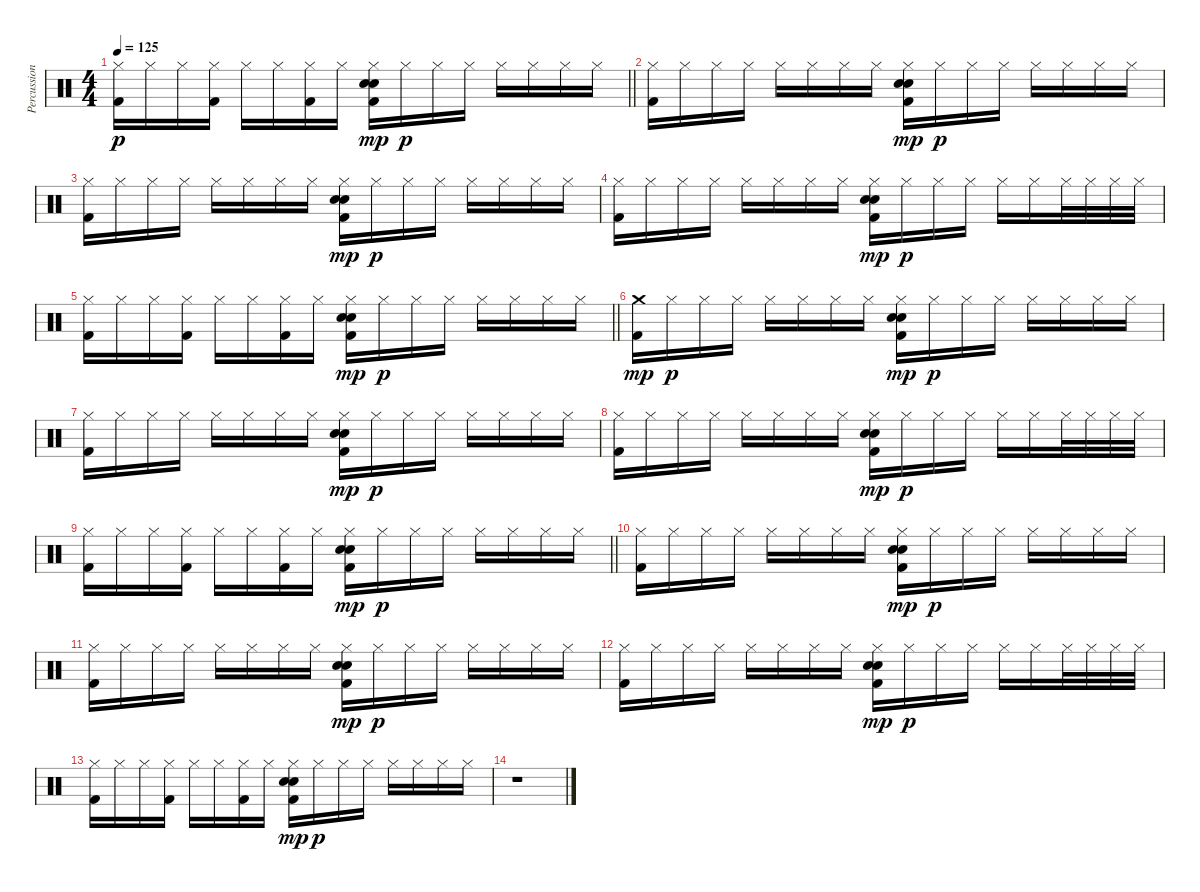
\track ("Percussion" "Percussion") {instrument percussion}
\staff {score}
\articulation defaults
\ts (4 4)
\tempo 125
\clef neutral
\barLineRight lightlight
\ks c
("Hi-Hat (closed)" "Kick (hit) 2").16{dy p} "Hi-Hat (closed)".16 "Hi-Hat (closed)".16 ("Hi-Hat (closed)" "Kick (hit) 2").16 "Hi-Hat (closed)".16 "Hi-Hat (closed)".16 ("Hi-Hat (closed)" "Kick (hit) 2").16 "Hi-Hat (closed)".16 ("Hi-Hat (closed)" "Hand Clap (hit)" "Electric Snare (hit)" "Kick (hit) 2").16{dy mp} "Hi-Hat (closed)".16{dy p} "Hi-Hat (closed)".16 "Hi-Hat (closed)".16 "Hi-Hat (closed)".16 "Hi-Hat (closed)".16 "Hi-Hat (closed)".16 "Hi-Hat (closed)".16 |
("Hi-Hat (closed)" "Kick (hit) 2").16 "Hi-Hat (closed)".16 "Hi-Hat (closed)".16 "Hi-Hat (closed)".16 "Hi-Hat (closed)".16 "Hi-Hat (closed)".16 "Hi-Hat (closed)".16 "Hi-Hat (closed)".16 ("Hi-Hat (closed)" "Hand Clap (hit)" "Electric Snare (hit)" "Kick (hit) 2").16{dy mp} "Hi-Hat (closed)".16{dy p} "Hi-Hat (closed)".16 "Hi-Hat (closed)".16 "Hi-Hat (closed)".16 "Hi-Hat (closed)".16 "Hi-Hat (closed)".16 "Hi-Hat (closed)".16 |
("Hi-Hat (closed)" "Kick (hit) 2").16 "Hi-Hat (closed)".16 "Hi-Hat (closed)".16 "Hi-Hat (closed)".16 "Hi-Hat (closed)".16 "Hi-Hat (closed)".16 "Hi-Hat (closed)".16 "Hi-Hat (closed)".16 ("Hi-Hat (closed)" "Hand Clap (hit)" "Electric Snare (hit)" "Kick (hit) 2").16{dy mp} "Hi-Hat (closed)".16{dy p} "Hi-Hat (closed)".16 "Hi-Hat (closed)".16 "Hi-Hat (closed)".16 "Hi-Hat (closed)".16 "Hi-Hat (closed)".16 "Hi-Hat (closed)".16 |
("Hi-Hat (closed)" "Kick (hit) 2").16 "Hi-Hat (closed)".16 "Hi-Hat (closed)".16 "Hi-Hat (closed)".16 "Hi-Hat (closed)".16 "Hi-Hat (closed)".16 "Hi-Hat (closed)".16 "Hi-Hat (closed)".16 ("Hi-Hat (closed)" "Hand Clap (hit)" "Electric Snare (hit)" "Kick (hit) 2").16{dy mp} "Hi-Hat (closed)".16{dy p} "Hi-Hat (closed)".16 "Hi-Hat (closed)".16 "Hi-Hat (closed)".16 "Hi-Hat (closed)".16 "Hi-Hat (closed)".32 "Hi-Hat (closed)".32 "Hi-Hat (closed)".32 "Hi-Hat (closed)".32 |
\barLineRight lightlight
("Hi-Hat (closed)" "Kick (hit) 2").16 "Hi-Hat (closed)".16 "Hi-Hat (closed)".16 ("Hi-Hat (closed)" "Kick (hit) 2").16 "Hi-Hat (closed)".16 "Hi-Hat (closed)".16 ("Hi-Hat (closed)" "Kick (hit) 2").16 "Hi-Hat (closed)".16 ("Hi-Hat (closed)" "Hand Clap (hit)" "Electric Snare (hit)" "Kick (hit) 2").16{dy mp} "Hi-Hat (closed)".16{dy p} "Hi-Hat (closed)".16 "Hi-Hat (closed)".16 "Hi-Hat (closed)".16 "Hi-Hat (closed)".16 "Hi-Hat (closed)".16 "Hi-Hat (closed)".16 |
\section ("" "")
("Crash medium (hit)" "Kick (hit) 2").16{dy mp} "Hi-Hat (closed)".16{dy p} "Hi-Hat (closed)".16 "Hi-Hat (closed)".16 "Hi-Hat (closed)".16 "Hi-Hat (closed)".16 "Hi-Hat (closed)".16 "Hi-Hat (closed)".16 ("Hi-Hat (closed)" "Hand Clap (hit)" "Electric Snare (hit)" "Kick (hit) 2").16{dy mp} "Hi-Hat (closed)".16{dy p} "Hi-Hat (closed)".16 "Hi-Hat (closed)".16 "Hi-Hat (closed)".16 "Hi-Hat (closed)".16 "Hi-Hat (closed)".16 "Hi-Hat (closed)".16 |
("Hi-Hat (closed)" "Kick (hit) 2").16 "Hi-Hat (closed)".16 "Hi-Hat (closed)".16 "Hi-Hat (closed)".16 "Hi-Hat (closed)".16 "Hi-Hat (closed)".16 "Hi-Hat (closed)".16 "Hi-Hat (closed)".16 ("Hi-Hat (closed)" "Hand Clap (hit)" "Electric Snare (hit)" "Kick (hit) 2").16{dy mp} "Hi-Hat (closed)".16{dy p} "Hi-Hat (closed)".16 "Hi-Hat (closed)".16 "Hi-Hat (closed)".16 "Hi-Hat (closed)".16 "Hi-Hat (closed)".16 "Hi-Hat (closed)".16 |
("Hi-Hat (closed)" "Kick (hit) 2").16 "Hi-Hat (closed)".16 "Hi-Hat (closed)".16 "Hi-Hat (closed)".16 "Hi-Hat (closed)".16 "Hi-Hat (closed)".16 "Hi-Hat (closed)".16 "Hi-Hat (closed)".16 ("Hi-Hat (closed)" "Hand Clap (hit)" "Electric Snare (hit)" "Kick (hit) 2").16{dy mp} "Hi-Hat (closed)".16{dy p} "Hi-Hat (closed)".16 "Hi-Hat (closed)".16 "Hi-Hat (closed)".16 "Hi-Hat (closed)".16 "Hi-Hat (closed)".32 "Hi-Hat (closed)".32 "Hi-Hat (closed)".32 "Hi-Hat (closed)".32 |
\barLineRight lightlight
("Hi-Hat (closed)" "Kick (hit) 2").16 "Hi-Hat (closed)".16 "Hi-Hat (closed)".16 ("Hi-Hat (closed)" "Kick (hit) 2").16 "Hi-Hat (closed)".16 "Hi-Hat (closed)".16 ("Hi-Hat (closed)" "Kick (hit) 2").16 "Hi-Hat (closed)".16 ("Hi-Hat (closed)" "Hand Clap (hit)" "Electric Snare (hit)" "Kick (hit) 2").16{dy mp} "Hi-Hat (closed)".16{dy p} "Hi-Hat (closed)".16 "Hi-Hat (closed)".16 "Hi-Hat (closed)".16 "Hi-Hat (closed)".16 "Hi-Hat (closed)".16 "Hi-Hat (closed)".16 |
("Hi-Hat (closed)" "Kick (hit) 2").16 "Hi-Hat (closed)".16 "Hi-Hat (closed)".16 "Hi-Hat (closed)".16 "Hi-Hat (closed)".16 "Hi-Hat (closed)".16 "Hi-Hat (closed)".16 "Hi-Hat (closed)".16 ("Hi-Hat (closed)" "Hand Clap (hit)" "Electric Snare (hit)" "Kick (hit) 2").16{dy mp} "Hi-Hat (closed)".16{dy p} "Hi-Hat (closed)".16 "Hi-Hat (closed)".16 "Hi-Hat (closed)".16 "Hi-Hat (closed)".16 "Hi-Hat (closed)".16 "Hi-Hat (closed)".16 |
("Hi-Hat (closed)" "Kick (hit) 2").16 "Hi-Hat (closed)".16 "Hi-Hat (closed)".16 "Hi-Hat (closed)".16 "Hi-Hat (closed)".16 "Hi-Hat (closed)".16 "Hi-Hat (closed)".16 "Hi-Hat (closed)".16 ("Hi-Hat (closed)" "Hand Clap (hit)" "Electric Snare (hit)" "Kick (hit) 2").16{dy mp} "Hi-Hat (closed)".16{dy p} "Hi-Hat (closed)".16 "Hi-Hat (closed)".16 "Hi-Hat (closed)".16 "Hi-Hat (closed)".16 "Hi-Hat (closed)".16 "Hi-Hat (closed)".16 |
("Hi-Hat (closed)" "Kick (hit) 2").16 "Hi-Hat (closed)".16 "Hi-Hat (closed)".16 "Hi-Hat (closed)".16 "Hi-Hat (closed)".16 "Hi-Hat (closed)".16 "Hi-Hat (closed)".16 "Hi-Hat (closed)".16 ("Hi-Hat (closed)" "Hand Clap (hit)" "Electric Snare (hit)" "Kick (hit) 2").16{dy mp} "Hi-Hat (closed)".16{dy p} "Hi-Hat (closed)".16 "Hi-Hat (closed)".16 "Hi-Hat (closed)".16 "Hi-Hat (closed)".16 "Hi-Hat (closed)".32 "Hi-Hat (closed)".32 "Hi-Hat (closed)".32 "Hi-Hat (closed)".32 |
("Hi-Hat (closed)" "Kick (hit) 2").16 "Hi-Hat (closed)".16 "Hi-Hat (closed)".16 ("Hi-Hat (closed)" "Kick (hit) 2").16 "Hi-Hat (closed)".16 "Hi-Hat (closed)".16 ("Hi-Hat (closed)" "Kick (hit) 2").16 "Hi-Hat (closed)".16 ("Hi-Hat (closed)" "Hand Clap (hit)" "Electric Snare (hit)" "Kick (hit) 2").16{dy mp} "Hi-Hat (closed)".16{dy p} "Hi-Hat (closed)".16 "Hi-Hat (closed)".16 "Hi-Hat (closed)".16 "Hi-Hat (closed)".16 "Hi-Hat (closed)".16 "Hi-Hat (closed)".16 |
r.1
